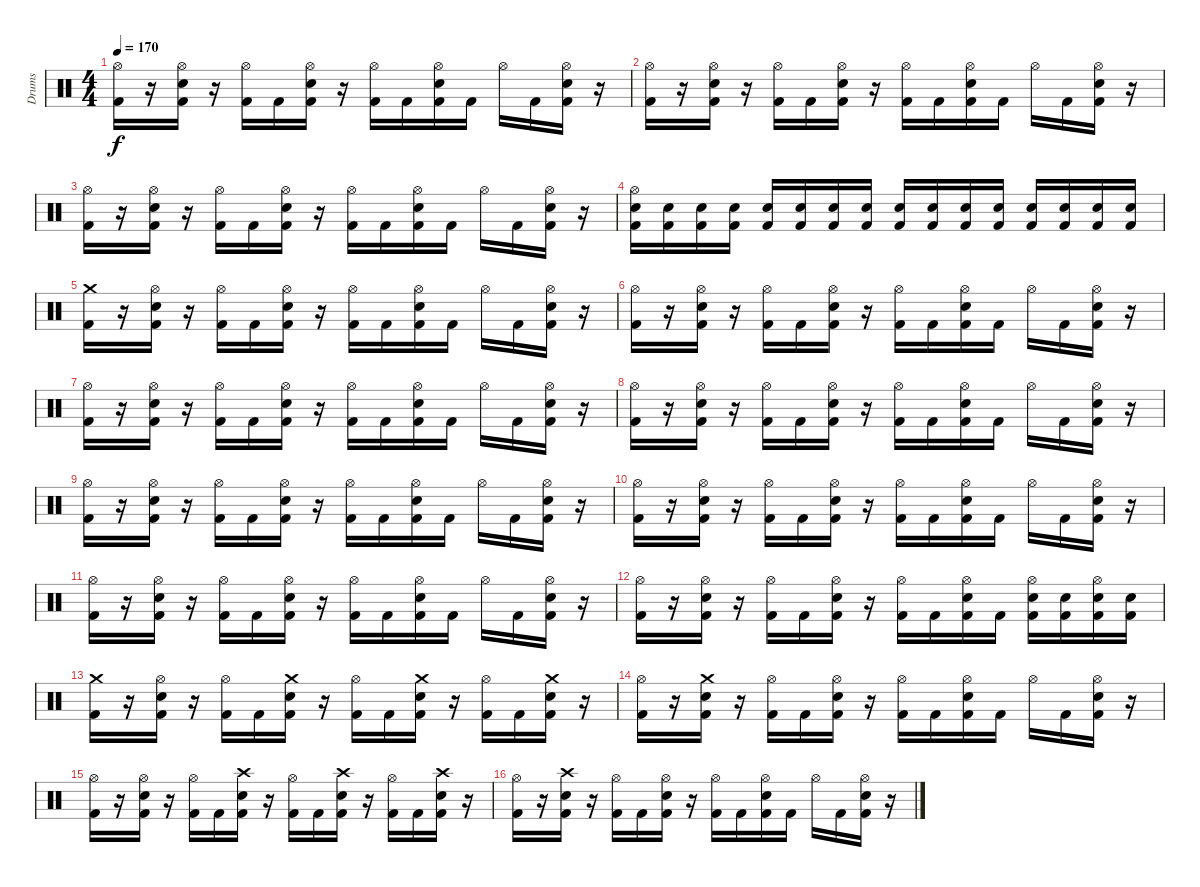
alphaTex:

\track ("Drums" "Drums") {instrument percussion}
\staff {score}
\articulation defaults
\ts (4 4)
\tempo 170
\clef neutral
\ks c
("Hi-Hat (open)" "Kick (hit) 2").16{dy f} r.16 ("Hi-Hat (open)" "Electric Snare (hit)" "Kick (hit) 2").16 r.16 ("Hi-Hat (open)" "Kick (hit) 2").16 "Kick (hit) 2".16 ("Hi-Hat (open)" "Electric Snare (hit)" "Kick (hit) 2").16 r.16 ("Hi-Hat (open)" "Kick (hit) 2").16 "Kick (hit) 2".16 ("Hi-Hat (open)" "Electric Snare (hit)" "Kick (hit) 2").16 "Kick (hit) 2".16 "Hi-Hat (open)".16 "Kick (hit) 2".16 ("Hi-Hat (open)" "Electric Snare (hit)" "Kick (hit) 2").16 r.16 |
("Hi-Hat (open)" "Kick (hit) 2").16 r.16 ("Hi-Hat (open)" "Electric Snare (hit)" "Kick (hit) 2").16 r.16 ("Hi-Hat (open)" "Kick (hit) 2").16 "Kick (hit) 2".16 ("Hi-Hat (open)" "Electric Snare (hit)" "Kick (hit) 2").16 r.16 ("Hi-Hat (open)" "Kick (hit) 2").16 "Kick (hit) 2".16 ("Hi-Hat (open)" "Electric Snare (hit)" "Kick (hit) 2").16 "Kick (hit) 2".16 "Hi-Hat (open)".16 "Kick (hit) 2".16 ("Hi-Hat (open)" "Electric Snare (hit)" "Kick (hit) 2").16 r.16 |
("Hi-Hat (open)" "Kick (hit) 2").16 r.16 ("Hi-Hat (open)" "Electric Snare (hit)" "Kick (hit) 2").16 r.16 ("Hi-Hat (open)" "Kick (hit) 2").16 "Kick (hit) 2".16 ("Hi-Hat (open)" "Electric Snare (hit)" "Kick (hit) 2").16 r.16 ("Hi-Hat (open)" "Kick (hit) 2").16 "Kick (hit) 2".16 ("Hi-Hat (open)" "Electric Snare (hit)" "Kick (hit) 2").16 "Kick (hit) 2".16 "Hi-Hat (open)".16 "Kick (hit) 2".16 ("Hi-Hat (open)" "Electric Snare (hit)" "Kick (hit) 2").16 r.16 |
("Hi-Hat (open)" "Electric Snare (hit)" "Kick (hit) 2").16 ("Electric Snare (hit)" "Kick (hit) 2").16 ("Electric Snare (hit)" "Kick (hit) 2").16 ("Electric Snare (hit)" "Kick (hit) 2").16 ("Electric Snare (hit)" "Kick (hit) 2").16 ("Electric Snare (hit)" "Kick (hit) 2").16 ("Electric Snare (hit)" "Kick (hit) 2").16 ("Electric Snare (hit)" "Kick (hit) 2").16 ("Electric Snare (hit)" "Kick (hit) 2").16 ("Electric Snare (hit)" "Kick (hit) 2").16 ("Electric Snare (hit)" "Kick (hit) 2").16 ("Electric Snare (hit)" "Kick (hit) 2").16 ("Electric Snare (hit)" "Kick (hit) 2").16 ("Electric Snare (hit)" "Kick (hit) 2").16 ("Electric Snare (hit)" "Kick (hit) 2").16 ("Electric Snare (hit)" "Kick (hit) 2").16 |
\section ("" "")
("Crash medium (hit)" "Kick (hit) 2").16 r.16 ("Hi-Hat (open)" "Electric Snare (hit)" "Kick (hit) 2").16 r.16 ("Hi-Hat (open)" "Kick (hit) 2").16 "Kick (hit) 2".16 ("Hi-Hat (open)" "Electric Snare (hit)" "Kick (hit) 2").16 r.16 ("Hi-Hat (open)" "Kick (hit) 2").16 "Kick (hit) 2".16 ("Hi-Hat (open)" "Electric Snare (hit)" "Kick (hit) 2").16 "Kick (hit) 2".16 "Hi-Hat (open)".16 "Kick (hit) 2".16 ("Hi-Hat (open)" "Electric Snare (hit)" "Kick (hit) 2").16 r.16 |
("Hi-Hat (open)" "Kick (hit) 2").16 r.16 ("Hi-Hat (open)" "Electric Snare (hit)" "Kick (hit) 2").16 r.16 ("Hi-Hat (open)" "Kick (hit) 2").16 "Kick (hit) 2".16 ("Hi-Hat (open)" "Electric Snare (hit)" "Kick (hit) 2").16 r.16 ("Hi-Hat (open)" "Kick (hit) 2").16 "Kick (hit) 2".16 ("Hi-Hat (open)" "Electric Snare (hit)" "Kick (hit) 2").16 "Kick (hit) 2".16 "Hi-Hat (open)".16 "Kick (hit) 2".16 ("Hi-Hat (open)" "Electric Snare (hit)" "Kick (hit) 2").16 r.16 |
("Hi-Hat (open)" "Kick (hit) 2").16 r.16 ("Hi-Hat (open)" "Electric Snare (hit)" "Kick (hit) 2").16 r.16 ("Hi-Hat (open)" "Kick (hit) 2").16 "Kick (hit) 2".16 ("Hi-Hat (open)" "Electric Snare (hit)" "Kick (hit) 2").16 r.16 ("Hi-Hat (open)" "Kick (hit) 2").16 "Kick (hit) 2".16 ("Hi-Hat (open)" "Electric Snare (hit)" "Kick (hit) 2").16 "Kick (hit) 2".16 "Hi-Hat (open)".16 "Kick (hit) 2".16 ("Hi-Hat (open)" "Electric Snare (hit)" "Kick (hit) 2").16 r.16 |
("Hi-Hat (open)" "Kick (hit) 2").16 r.16 ("Hi-Hat (open)" "Electric Snare (hit)" "Kick (hit) 2").16 r.16 ("Hi-Hat (open)" "Kick (hit) 2").16 "Kick (hit) 2".16 ("Hi-Hat (open)" "Electric Snare (hit)" "Kick (hit) 2").16 r.16 ("Hi-Hat (open)" "Kick (hit) 2").16 "Kick (hit) 2".16 ("Hi-Hat (open)" "Electric Snare (hit)" "Kick (hit) 2").16 "Kick (hit) 2".16 "Hi-Hat (open)".16 "Kick (hit) 2".16 ("Hi-Hat (open)" "Electric Snare (hit)" "Kick (hit) 2").16 r.16 |
("Hi-Hat (open)" "Kick (hit) 2").16 r.16 ("Hi-Hat (open)" "Electric Snare (hit)" "Kick (hit) 2").16 r.16 ("Hi-Hat (open)" "Kick (hit) 2").16 "Kick (hit) 2".16 ("Hi-Hat (open)" "Electric Snare (hit)" "Kick (hit) 2").16 r.16 ("Hi-Hat (open)" "Kick (hit) 2").16 "Kick (hit) 2".16 ("Hi-Hat (open)" "Electric Snare (hit)" "Kick (hit) 2").16 "Kick (hit) 2".16 "Hi-Hat (open)".16 "Kick (hit) 2".16 ("Hi-Hat (open)" "Electric Snare (hit)" "Kick (hit) 2").16 r.16 |
("Hi-Hat (open)" "Kick (hit) 2").16 r.16 ("Hi-Hat (open)" "Electric Snare (hit)" "Kick (hit) 2").16 r.16 ("Hi-Hat (open)" "Kick (hit) 2").16 "Kick (hit) 2".16 ("Hi-Hat (open)" "Electric Snare (hit)" "Kick (hit) 2").16 r.16 ("Hi-Hat (open)" "Kick (hit) 2").16 "Kick (hit) 2".16 ("Hi-Hat (open)" "Electric Snare (hit)" "Kick (hit) 2").16 "Kick (hit) 2".16 "Hi-Hat (open)".16 "Kick (hit) 2".16 ("Hi-Hat (open)" "Electric Snare (hit)" "Kick (hit) 2").16 r.16 |
("Hi-Hat (open)" "Kick (hit) 2").16 r.16 ("Hi-Hat (open)" "Electric Snare (hit)" "Kick (hit) 2").16 r.16 ("Hi-Hat (open)" "Kick (hit) 2").16 "Kick (hit) 2".16 ("Hi-Hat (open)" "Electric Snare (hit)" "Kick (hit) 2").16 r.16 ("Hi-Hat (open)" "Kick (hit) 2").16 "Kick (hit) 2".16 ("Hi-Hat (open)" "Electric Snare (hit)" "Kick (hit) 2").16 "Kick (hit) 2".16 "Hi-Hat (open)".16 "Kick (hit) 2".16 ("Hi-Hat (open)" "Electric Snare (hit)" "Kick (hit) 2").16 r.16 |
("Hi-Hat (open)" "Kick (hit) 2").16 r.16 ("Hi-Hat (open)" "Electric Snare (hit)" "Kick (hit) 2").16 r.16 ("Hi-Hat (open)" "Kick (hit) 2").16 "Kick (hit) 2".16 ("Hi-Hat (open)" "Electric Snare (hit)" "Kick (hit) 2").16 r.16 ("Hi-Hat (open)" "Kick (hit) 2").16 "Kick (hit) 2".16 ("Hi-Hat (open)" "Electric Snare (hit)" "Kick (hit) 2").16 "Kick (hit) 2".16 ("Hi-Hat (open)" "Electric Snare (hit)" "Kick (hit) 2").16 ("Electric Snare (hit)" "Kick (hit) 2").16 ("Hi-Hat (open)" "Electric Snare (hit)" "Kick (hit) 2").16 ("Electric Snare (hit)" "Kick (hit) 2").16 |
\section ("" "")
("Crash medium (hit)" "Kick (hit) 2").16 r.16 ("Hi-Hat (open)" "Electric Snare (hit)" "Kick (hit) 2").16 r.16 ("Hi-Hat (open)" "Kick (hit) 2").16 "Kick (hit) 2".16 ("Crash medium (hit)" "Electric Snare (hit)" "Kick (hit) 2").16 r.16 ("Hi-Hat (open)" "Kick (hit) 2").16 "Kick (hit) 2".16 ("Crash medium (hit)" "Electric Snare (hit)" "Kick (hit) 2").16 r.16 ("Hi-Hat (open)" "Kick (hit) 2").16 "Kick (hit) 2".16 ("Crash medium (hit)" "Electric Snare (hit)" "Kick (hit) 2").16 r.16 |
("Hi-Hat (open)" "Kick (hit) 2").16 r.16 ("Crash medium (hit)" "Electric Snare (hit)" "Kick (hit) 2").16 r.16 ("Hi-Hat (open)" "Kick (hit) 2").16 "Kick (hit) 2".16 ("Hi-Hat (open)" "Electric Snare (hit)" "Kick (hit) 2").16 r.16 ("Hi-Hat (open)" "Kick (hit) 2").16 "Kick (hit) 2".16 ("Hi-Hat (open)" "Electric Snare (hit)" "Kick (hit) 2").16 "Kick (hit) 2".16 "Hi-Hat (open)".16 "Kick (hit) 2".16 ("Hi-Hat (open)" "Electric Snare (hit)" "Kick (hit) 2").16 r.16 |
("Hi-Hat (open)" "Kick (hit) 2").16 r.16 ("Hi-Hat (open)" "Electric Snare (hit)" "Kick (hit) 2").16 r.16 ("Hi-Hat (open)" "Kick (hit) 2").16 "Kick (hit) 2".16 ("Crash high (hit)" "Electric Snare (hit)" "Kick (hit) 2").16 r.16 ("Hi-Hat (open)" "Kick (hit) 2").16 "Kick (hit) 2".16 ("Crash high (hit)" "Electric Snare (hit)" "Kick (hit) 2").16 r.16 ("Hi-Hat (open)" "Kick (hit) 2").16 "Kick (hit) 2".16 ("Crash high (hit)" "Electric Snare (hit)" "Kick (hit) 2").16 r.16 |
("Hi-Hat (open)" "Kick (hit) 2").16 r.16 ("Crash high (hit)" "Electric Snare (hit)" "Kick (hit) 2").16 r.16 ("Hi-Hat (open)" "Kick (hit) 2").16 "Kick (hit) 2".16 ("Hi-Hat (open)" "Electric Snare (hit)" "Kick (hit) 2").16 r.16 ("Hi-Hat (open)" "Kick (hit) 2").16 "Kick (hit) 2".16 ("Hi-Hat (open)" "Electric Snare (hit)" "Kick (hit) 2").16 "Kick (hit) 2".16 "Hi-Hat (open)".16 "Kick (hit) 2".16 ("Hi-Hat (open)" "Electric Snare (hit)" "Kick (hit) 2").16 r.16
